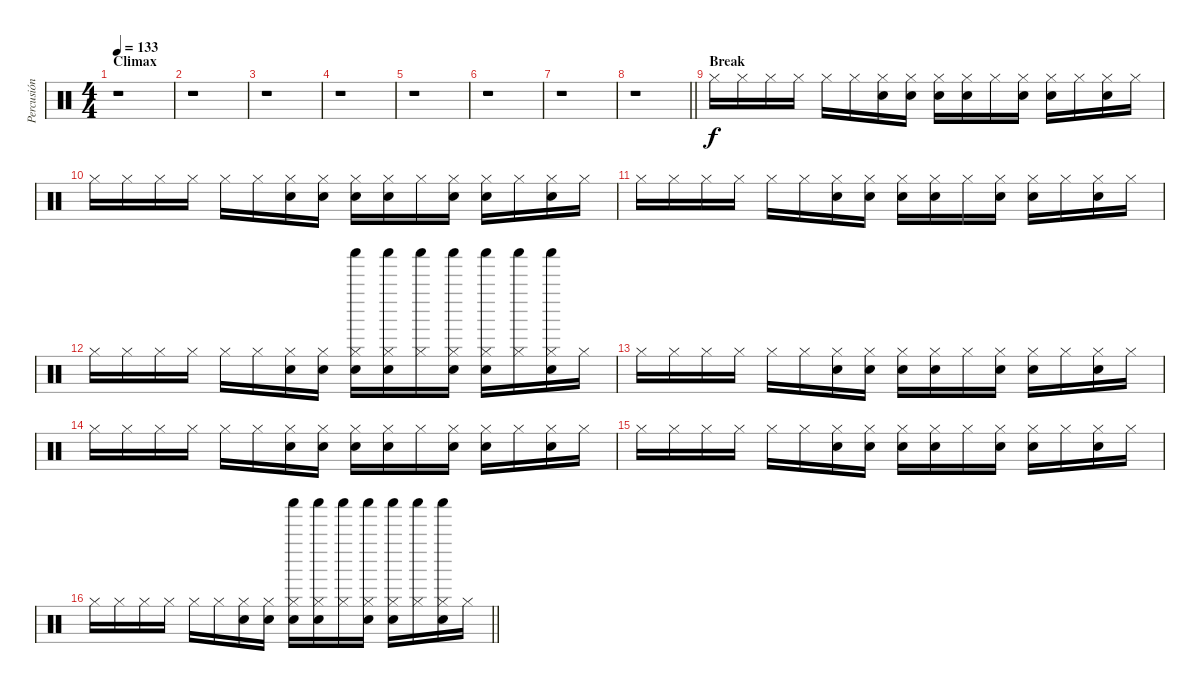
\track ("Percusión" "Percusión") {instrument percussion}
\staff {score}
\articulation defaults
\ts (4 4)
\section ("" "Climax")
\tempo 133
\clef neutral
\ks c
r.1{dy f} |
r.1 |
r.1 |
r.1 |
r.1 |
r.1 |
r.1 |
\barLineRight lightlight
r.1 |
\section ("" "Break")
"Hi-Hat (closed)".16 "Hi-Hat (closed)".16 "Hi-Hat (closed)".16 "Hi-Hat (closed)".16 "Hi-Hat (closed)".16 "Hi-Hat (closed)".16 ("Hi-Hat (closed)" "Electric Snare (hit)").16 ("Hi-Hat (closed)" "Electric Snare (hit)").16 ("Hi-Hat (closed)" "Electric Snare (hit)").16 ("Hi-Hat (closed)" "Electric Snare (hit)").16 "Hi-Hat (closed)".16 ("Hi-Hat (closed)" "Electric Snare (hit)").16 ("Hi-Hat (closed)" "Electric Snare (hit)").16 "Hi-Hat (closed)".16 ("Hi-Hat (closed)" "Electric Snare (hit)").16 "Hi-Hat (closed)".16 |
"Hi-Hat (closed)".16 "Hi-Hat (closed)".16 "Hi-Hat (closed)".16 "Hi-Hat (closed)".16 "Hi-Hat (closed)".16 "Hi-Hat (closed)".16 ("Hi-Hat (closed)" "Electric Snare (hit)").16 ("Hi-Hat (closed)" "Electric Snare (hit)").16 ("Hi-Hat (closed)" "Electric Snare (hit)").16 ("Hi-Hat (closed)" "Electric Snare (hit)").16 "Hi-Hat (closed)".16 ("Hi-Hat (closed)" "Electric Snare (hit)").16 ("Hi-Hat (closed)" "Electric Snare (hit)").16 "Hi-Hat (closed)".16 ("Hi-Hat (closed)" "Electric Snare (hit)").16 "Hi-Hat (closed)".16 |
"Hi-Hat (closed)".16 "Hi-Hat (closed)".16 "Hi-Hat (closed)".16 "Hi-Hat (closed)".16 "Hi-Hat (closed)".16 "Hi-Hat (closed)".16 ("Hi-Hat (closed)" "Electric Snare (hit)").16 ("Hi-Hat (closed)" "Electric Snare (hit)").16 ("Hi-Hat (closed)" "Electric Snare (hit)").16 ("Hi-Hat (closed)" "Electric Snare (hit)").16 "Hi-Hat (closed)".16 ("Hi-Hat (closed)" "Electric Snare (hit)").16 ("Hi-Hat (closed)" "Electric Snare (hit)").16 "Hi-Hat (closed)".16 ("Hi-Hat (closed)" "Electric Snare (hit)").16 "Hi-Hat (closed)".16 |
"Hi-Hat (closed)".16 "Hi-Hat (closed)".16 "Hi-Hat (closed)".16 "Hi-Hat (closed)".16 "Hi-Hat (closed)".16 "Hi-Hat (closed)".16 ("Hi-Hat (closed)" "Electric Snare (hit)").16 ("Hi-Hat (closed)" "Electric Snare (hit)").16 ("Hi-Hat (closed)" "Shaker (hit)" "Electric Snare (hit)").16 ("Hi-Hat (closed)" "Shaker (hit)" "Electric Snare (hit)").16 ("Hi-Hat (closed)" "Shaker (hit)").16 ("Hi-Hat (closed)" "Shaker (hit)" "Electric Snare (hit)").16 ("Hi-Hat (closed)" "Shaker (hit)" "Electric Snare (hit)").16 ("Hi-Hat (closed)" "Shaker (hit)").16 ("Hi-Hat (closed)" "Shaker (hit)" "Electric Snare (hit)").16 "Hi-Hat (closed)".16 |
"Hi-Hat (closed)".16 "Hi-Hat (closed)".16 "Hi-Hat (closed)".16 "Hi-Hat (closed)".16 "Hi-Hat (closed)".16 "Hi-Hat (closed)".16 ("Hi-Hat (closed)" "Electric Snare (hit)").16 ("Hi-Hat (closed)" "Electric Snare (hit)").16 ("Hi-Hat (closed)" "Electric Snare (hit)").16 ("Hi-Hat (closed)" "Electric Snare (hit)").16 "Hi-Hat (closed)".16 ("Hi-Hat (closed)" "Electric Snare (hit)").16 ("Hi-Hat (closed)" "Electric Snare (hit)").16 "Hi-Hat (closed)".16 ("Hi-Hat (closed)" "Electric Snare (hit)").16 "Hi-Hat (closed)".16 |
"Hi-Hat (closed)".16 "Hi-Hat (closed)".16 "Hi-Hat (closed)".16 "Hi-Hat (closed)".16 "Hi-Hat (closed)".16 "Hi-Hat (closed)".16 ("Hi-Hat (closed)" "Electric Snare (hit)").16 ("Hi-Hat (closed)" "Electric Snare (hit)").16 ("Hi-Hat (closed)" "Electric Snare (hit)").16 ("Hi-Hat (closed)" "Electric Snare (hit)").16 "Hi-Hat (closed)".16 ("Hi-Hat (closed)" "Electric Snare (hit)").16 ("Hi-Hat (closed)" "Electric Snare (hit)").16 "Hi-Hat (closed)".16 ("Hi-Hat (closed)" "Electric Snare (hit)").16 "Hi-Hat (closed)".16 |
"Hi-Hat (closed)".16 "Hi-Hat (closed)".16 "Hi-Hat (closed)".16 "Hi-Hat (closed)".16 "Hi-Hat (closed)".16 "Hi-Hat (closed)".16 ("Hi-Hat (closed)" "Electric Snare (hit)").16 ("Hi-Hat (closed)" "Electric Snare (hit)").16 ("Hi-Hat (closed)" "Electric Snare (hit)").16 ("Hi-Hat (closed)" "Electric Snare (hit)").16 "Hi-Hat (closed)".16 ("Hi-Hat (closed)" "Electric Snare (hit)").16 ("Hi-Hat (closed)" "Electric Snare (hit)").16 "Hi-Hat (closed)".16 ("Hi-Hat (closed)" "Electric Snare (hit)").16 "Hi-Hat (closed)".16 |
\barLineRight lightlight "Hi-Hat (closed)".16 "Hi-Hat (closed)".16 "Hi-Hat (closed)".16 "Hi-Hat (closed)".16 "Hi-Hat (closed)".16 "Hi-Hat (closed)".16
("Hi-Hat (closed)" "Electric Snare (hit)").16 ("Hi-Hat (closed)" "Electric Snare (hit)").16 ("Hi-Hat (closed)" "Shaker (hit)" "Electric Snare (hit)").16 ("Hi-Hat (closed)" "Shaker (hit)" "Electric Snare (hit)").16 ("Hi-Hat (closed)" "Shaker (hit)").16 ("Hi-Hat (closed)" "Shaker (hit)" "Electric Snare (hit)").16 ("Hi-Hat (closed)" "Shaker (hit)" "Electric Snare (hit)").16 ("Hi-Hat (closed)" "Shaker (hit)").16 ("Hi-Hat (closed)" "Shaker (hit)" "Electric Snare (hit)").16 "Hi-Hat (closed)".16
